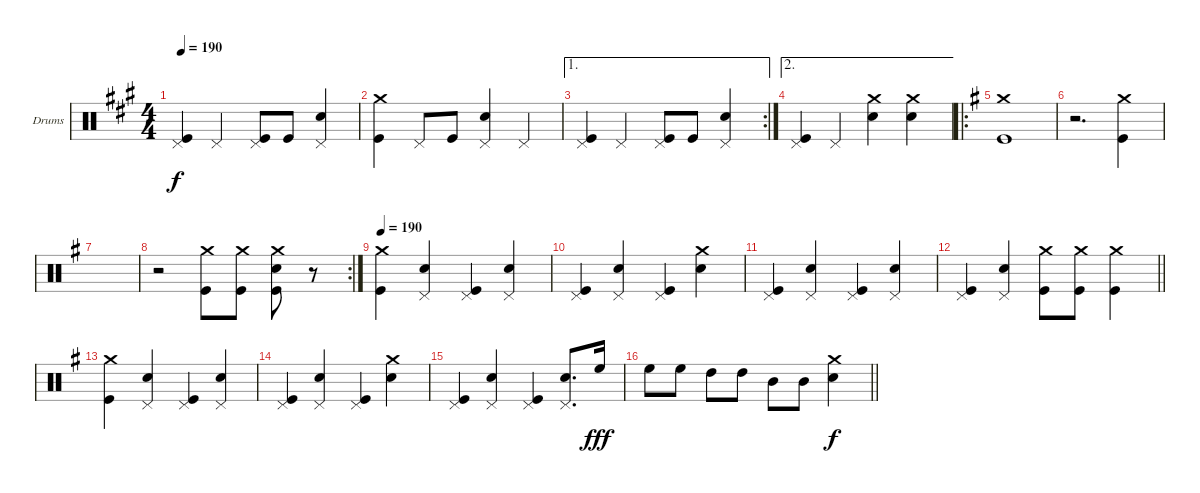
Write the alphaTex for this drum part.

\bracketExtendMode groupsimilarinstruments
\firstSystemTrackNameOrientation horizontal
\otherSystemsTrackNameOrientation horizontal
\track ("Drums" "Drums") {instrument percussion}
\staff {score}
\articulation defaults
\ts (4 4)
\tempo 190
\clef neutral
\ks a
("Pedal Hi-Hat (hit)" "Kick (hit)").4{dy f} "Pedal Hi-Hat (hit)".4 ("Pedal Hi-Hat (hit)" "Kick (hit)").8 "Kick (hit)".8 ("Pedal Hi-Hat (hit)" "Snare (hit) 2").4 |
("Crash medium (hit)" "Kick (hit)").4 "Pedal Hi-Hat (hit)".8 "Kick (hit)".8 ("Pedal Hi-Hat (hit)" "Snare (hit) 2").4 "Pedal Hi-Hat (hit)".4 |
\ae 1
\rc 2
("Pedal Hi-Hat (hit)" "Kick (hit)").4 "Pedal Hi-Hat (hit)".4 ("Pedal Hi-Hat (hit)" "Kick (hit)").8 "Kick (hit)".8 ("Pedal Hi-Hat (hit)" "Snare (hit) 2").4 |
\ae 2
("Pedal Hi-Hat (hit)" "Kick (hit)").4 "Pedal Hi-Hat (hit)".4 ("Crash medium (hit)" "Snare (hit) 2").4 ("Crash medium (hit)" "Snare (hit) 2").4 |
\ro
\ks g
("Crash medium (hit)" "Kick (hit)").1 |
r.2{d} ("Crash medium (hit)" "Kick (hit)").4 |
|
\rc 2
r.2 ("Crash medium (hit)" "Kick (hit)").8 ("Crash medium (hit)" "Kick (hit)").8 ("Crash medium (hit)" "Snare (hit) 2" "Kick (hit)").8 r.8 |
\tempo 190
("Crash medium (hit)" "Kick (hit)").4 ("Pedal Hi-Hat (hit)" "Snare (hit) 2").4 ("Pedal Hi-Hat (hit)" "Kick (hit)").4 ("Pedal Hi-Hat (hit)" "Snare (hit) 2").4 |
("Pedal Hi-Hat (hit)" "Kick (hit)").4 ("Pedal Hi-Hat (hit)" "Snare (hit) 2").4 ("Pedal Hi-Hat (hit)" "Kick (hit)").4 ("Crash medium (hit)" "Snare (hit) 2").4 |
("Pedal Hi-Hat (hit)" "Kick (hit)").4 ("Pedal Hi-Hat (hit)" "Snare (hit) 2").4 ("Pedal Hi-Hat (hit)" "Kick (hit)").4 ("Pedal Hi-Hat (hit)" "Snare (hit) 2").4 |
\barLineRight lightlight
("Pedal Hi-Hat (hit)" "Kick (hit)").4 ("Pedal Hi-Hat (hit)" "Snare (hit) 2").4 ("Crash medium (hit)" "Kick (hit)").8 ("Crash medium (hit)" "Kick (hit)").8 ("Crash medium (hit)" "Kick (hit)").4 |
("Crash medium (hit)" "Kick (hit)").4 ("Pedal Hi-Hat (hit)" "Snare (hit) 2").4 ("Pedal Hi-Hat (hit)" "Kick (hit)").4 ("Pedal Hi-Hat (hit)" "Snare (hit) 2").4 |
("Pedal Hi-Hat (hit)" "Kick (hit)").4 ("Pedal Hi-Hat (hit)" "Snare (hit) 2").4 ("Pedal Hi-Hat (hit)" "Kick (hit)").4 ("Crash medium (hit)" "Snare (hit) 2").4 |
("Pedal Hi-Hat (hit)" "Kick (hit)").4 ("Pedal Hi-Hat (hit)" "Snare (hit) 2").4 ("Pedal Hi-Hat (hit)" "Kick (hit)").4 ("Pedal Hi-Hat (hit)" "Snare (hit) 2").8{d} "High Floor Tom (hit)".16{dy fff} |
\barLineRight lightlight "High Floor Tom (hit)".8 "High Floor Tom (hit)".8 "High Tom (hit)".8 "High Tom (hit)".8 "Mid Tom (hit)".8 "Mid Tom (hit)".8
("Crash medium (hit)" "Snare (hit) 2").4{dy f}
